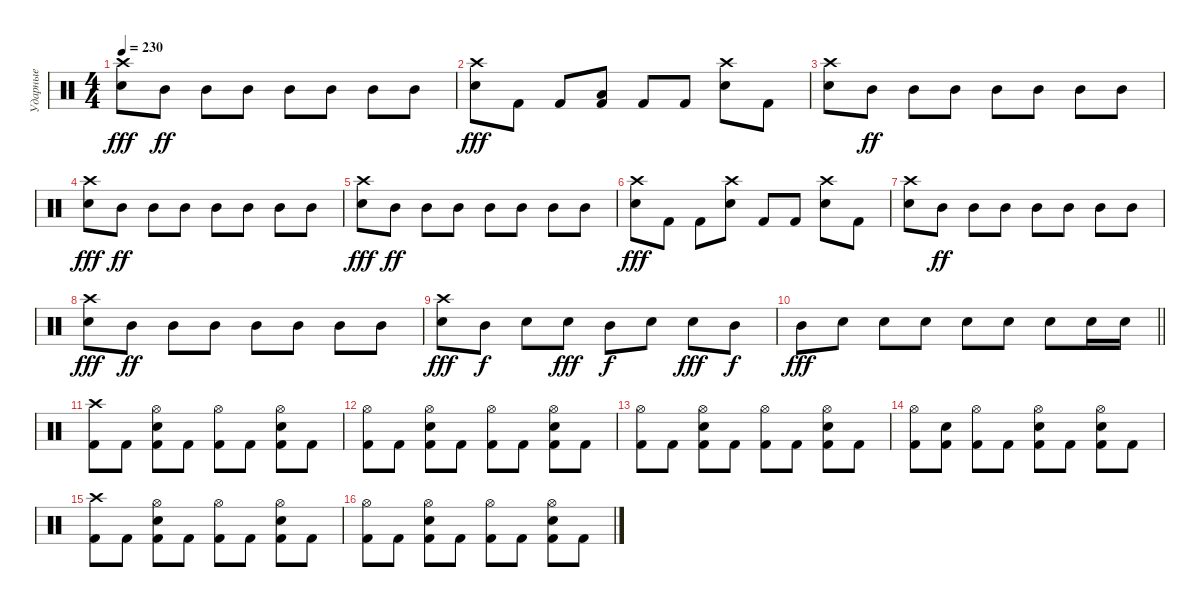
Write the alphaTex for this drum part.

\track ("Ударные" "Ударные") {instrument percussion}
\staff {score}
\articulation defaults
\ts (4 4)
\tempo 230
\clef neutral
\ks c
("Snare (hit) 2" "Crash high (hit)").8{dy fff} "Mid Tom (hit)".8{dy ff} "Mid Tom (hit)".8 "Mid Tom (hit)".8 "Mid Tom (hit)".8 "Mid Tom (hit)".8 "Mid Tom (hit)".8 "Mid Tom (hit)".8 |
("Snare (hit) 2" "Crash high (hit)").8{dy fff} "Kick (hit) 2".8 "Kick (hit) 2".8 ("Kick (hit) 2" "Low Tom (hit)").8 "Kick (hit) 2".8 "Kick (hit) 2".8 ("Snare (hit) 2" "Crash high (hit)").8 "Kick (hit) 2".8 |
("Snare (hit) 2" "Crash high (hit)").8 "Mid Tom (hit)".8{dy ff} "Mid Tom (hit)".8 "Mid Tom (hit)".8 "Mid Tom (hit)".8 "Mid Tom (hit)".8 "Mid Tom (hit)".8 "Mid Tom (hit)".8 |
("Snare (hit) 2" "Crash high (hit)").8{dy fff} "Mid Tom (hit)".8{dy ff} "Mid Tom (hit)".8 "Mid Tom (hit)".8 "Mid Tom (hit)".8 "Mid Tom (hit)".8 "Mid Tom (hit)".8 "Mid Tom (hit)".8 |
("Snare (hit) 2" "Crash high (hit)").8{dy fff} "Mid Tom (hit)".8{dy ff} "Mid Tom (hit)".8 "Mid Tom (hit)".8 "Mid Tom (hit)".8 "Mid Tom (hit)".8 "Mid Tom (hit)".8 "Mid Tom (hit)".8 |
("Snare (hit) 2" "Crash high (hit)").8{dy fff} "Kick (hit) 2".8 "Kick (hit) 2".8 ("Snare (hit) 2" "Crash high (hit)").8 "Kick (hit) 2".8 "Kick (hit) 2".8 ("Snare (hit) 2" "Crash high (hit)").8 "Kick (hit) 2".8 |
("Snare (hit) 2" "Crash high (hit)").8 "Mid Tom (hit)".8{dy ff} "Mid Tom (hit)".8 "Mid Tom (hit)".8 "Mid Tom (hit)".8 "Mid Tom (hit)".8 "Mid Tom (hit)".8 "Mid Tom (hit)".8 |
("Snare (hit) 2" "Crash high (hit)").8{dy fff} "Mid Tom (hit)".8{dy ff} "Mid Tom (hit)".8 "Mid Tom (hit)".8 "Mid Tom (hit)".8 "Mid Tom (hit)".8 "Mid Tom (hit)".8 "Mid Tom (hit)".8 |
("Snare (hit) 2" "Crash high (hit)").8{dy fff} "Mid Tom (hit)".8{dy f} "Snare (hit) 2".8 "Snare (hit) 2".8{dy fff} "Mid Tom (hit)".8{dy f} "Snare (hit) 2".8 "Snare (hit) 2".8{dy fff} "Mid Tom (hit)".8{dy f} |
\barLineRight lightlight "Mid Tom (hit)".8{dy fff} "Snare (hit) 2".8 "Snare (hit) 2".8 "Snare (hit) 2".8 "Snare (hit) 2".8 "Snare (hit) 2".8 "Snare (hit) 2".8 "Snare (hit) 2".16 "Snare (hit) 2".16
|
("Kick (hit) 2" "Crash high (hit)").8 "Kick (hit) 2".8 ("Kick (hit) 2" "Snare (hit) 2" "Hi-Hat (open)").8 "Kick (hit) 2".8 ("Kick (hit) 2" "Hi-Hat (open)").8 "Kick (hit) 2".8 ("Kick (hit) 2" "Snare (hit) 2" "Hi-Hat (open)").8 "Kick (hit) 2".8 |
("Kick (hit) 2" "Hi-Hat (open)").8 "Kick (hit) 2".8 ("Kick (hit) 2" "Snare (hit) 2" "Hi-Hat (open)").8 "Kick (hit) 2".8 ("Kick (hit) 2" "Hi-Hat (open)").8 "Kick (hit) 2".8 ("Kick (hit) 2" "Snare (hit) 2" "Hi-Hat (open)").8 "Kick (hit) 2".8 |
("Kick (hit) 2" "Hi-Hat (open)").8 "Kick (hit) 2".8 ("Kick (hit) 2" "Snare (hit) 2" "Hi-Hat (open)").8 "Kick (hit) 2".8 ("Kick (hit) 2" "Hi-Hat (open)").8 "Kick (hit) 2".8 ("Kick (hit) 2" "Snare (hit) 2" "Hi-Hat (open)").8 "Kick (hit) 2".8 |
("Kick (hit) 2" "Hi-Hat (open)").8 ("Kick (hit) 2" "Snare (hit) 2").8 ("Kick (hit) 2" "Hi-Hat (open)").8 "Kick (hit) 2".8 ("Kick (hit) 2" "Snare (hit) 2" "Hi-Hat (open)").8 "Kick (hit) 2".8 ("Kick (hit) 2" "Snare (hit) 2" "Hi-Hat (open)").8 "Kick (hit) 2".8 |
("Kick (hit) 2" "Crash high (hit)").8 "Kick (hit) 2".8 ("Kick (hit) 2" "Snare (hit) 2" "Hi-Hat (open)").8 "Kick (hit) 2".8 ("Kick (hit) 2" "Hi-Hat (open)").8 "Kick (hit) 2".8 ("Kick (hit) 2" "Snare (hit) 2" "Hi-Hat (open)").8 "Kick (hit) 2".8 |
("Kick (hit) 2" "Hi-Hat (open)").8 "Kick (hit) 2".8 ("Kick (hit) 2" "Snare (hit) 2" "Hi-Hat (open)").8 "Kick (hit) 2".8 ("Kick (hit) 2" "Hi-Hat (open)").8 "Kick (hit) 2".8 ("Kick (hit) 2" "Snare (hit) 2" "Hi-Hat (open)").8 "Kick (hit) 2".8
